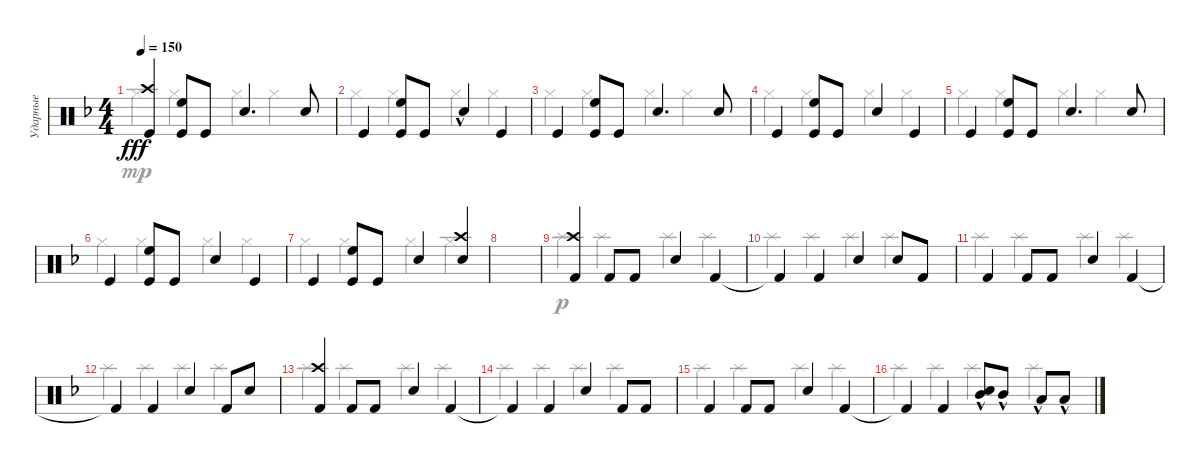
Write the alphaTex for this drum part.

\track ("Ударные" "Ударные") {instrument percussion}
\staff {score}
\articulation defaults
\voice
\ts (4 4)
\tempo 150
\clef neutral
\ks dminor
("Crash high (hit)" "Kick (hit)").4{dy fff} ("Kick (hit)" "High Floor Tom (hit)").8 "Kick (hit)".8 "Electric Snare (hit)".4{d} "Electric Snare (hit)".8 |
"Kick (hit)".4 ("Kick (hit)" "High Floor Tom (hit)").8 "Kick (hit)".8 "Electric Snare (hit)"{hac}.4 "Kick (hit)".4 |
"Kick (hit)".4 ("Kick (hit)" "High Floor Tom (hit)").8 "Kick (hit)".8 "Electric Snare (hit)".4{d} "Electric Snare (hit)".8 |
"Kick (hit)".4 ("Kick (hit)" "High Floor Tom (hit)").8 "Kick (hit)".8 "Electric Snare (hit)".4 "Kick (hit)".4 |
"Kick (hit)".4 ("Kick (hit)" "High Floor Tom (hit)").8 "Kick (hit)".8 "Electric Snare (hit)".4{d} "Electric Snare (hit)".8 |
"Kick (hit)".4 ("Kick (hit)" "High Floor Tom (hit)").8 "Kick (hit)".8 "Electric Snare (hit)".4 "Kick (hit)".4 |
"Kick (hit)".4 ("Kick (hit)" "High Floor Tom (hit)").8 "Kick (hit)".8 "Electric Snare (hit)".4 ("Electric Snare (hit)" "Crash high (hit)").4 |
|
("Crash high (hit)" "Kick (hit) 2").4 "Kick (hit) 2".8 "Kick (hit) 2".8 "Electric Snare (hit)".4 "Kick (hit) 2".4 |
"Kick (hit) 2"{t}.4 "Kick (hit) 2".4 "Electric Snare (hit)".4 "Electric Snare (hit)".8 "Kick (hit) 2".8 |
"Kick (hit) 2".4 "Kick (hit) 2".8 "Kick (hit) 2".8 "Electric Snare (hit)".4 "Kick (hit) 2".4 |
"Kick (hit) 2"{t}.4 "Kick (hit) 2".4 "Electric Snare (hit)".4 "Kick (hit) 2".8 "Electric Snare (hit)".8 |
("Crash high (hit)" "Kick (hit) 2").4 "Kick (hit) 2".8 "Kick (hit) 2".8 "Electric Snare (hit)".4 "Kick (hit) 2".4 |
"Kick (hit) 2"{t}.4 "Kick (hit) 2".4 "Electric Snare (hit)".4 "Kick (hit) 2".8 "Kick (hit) 2".8 |
"Kick (hit) 2".4 "Kick (hit) 2".8 "Kick (hit) 2".8 "Electric Snare (hit)".4 "Kick (hit) 2".4 |
"Kick (hit) 2"{t}.4 "Kick (hit) 2".4 ("Electric Snare (hit)" "Mid Tom (hit)"{hac}).8 "Mid Tom (hit)"{hac}.8 "Low Tom (hit)"{hac}.8 "Low Tom (hit)"{hac}.8
\voice
\clef neutral
\ottava regular
\simile none
\ks dminor "Hi-Hat (closed)".4{dy mp} "Hi-Hat (closed)".4 "Hi-Hat (closed)".4 "Hi-Hat (closed)".4
|
"Hi-Hat (closed)".4 "Hi-Hat (closed)".4 "Hi-Hat (closed)".4 "Hi-Hat (closed)".4 |
"Hi-Hat (closed)".4 "Hi-Hat (closed)".4 "Hi-Hat (closed)".4 "Hi-Hat (closed)".4 |
"Hi-Hat (closed)".4 "Hi-Hat (closed)".4 "Hi-Hat (closed)".4 "Hi-Hat (closed)".4 |
"Hi-Hat (closed)".4 "Hi-Hat (closed)".4 "Hi-Hat (closed)".4 "Hi-Hat (closed)".4 |
"Hi-Hat (closed)".4 "Hi-Hat (closed)".4 "Hi-Hat (closed)".4 "Hi-Hat (closed)".4 |
"Hi-Hat (closed)".4 "Hi-Hat (closed)".4 "Hi-Hat (closed)".4 "Hi-Hat (closed)".4 |
|
"Splash (hit)".4{dy p} "Splash (hit)".4 "Splash (hit)".4 "Splash (hit)".4 |
"Splash (hit)".4 "Splash (hit)".4 "Splash (hit)".4 "Splash (hit)".4 |
"Splash (hit)".4 "Splash (hit)".4 "Splash (hit)".4 "Splash (hit)".4 |
"Splash (hit)".4 "Splash (hit)".4 "Splash (hit)".4 "Splash (hit)".4 |
"Splash (hit)".4 "Splash (hit)".4 "Splash (hit)".4 "Splash (hit)".4 |
"Splash (hit)".4 "Splash (hit)".4 "Splash (hit)".4 "Splash (hit)".4 |
"Splash (hit)".4 "Splash (hit)".4 "Splash (hit)".4 "Splash (hit)".4 |
"Splash (hit)".4 "Splash (hit)".4 "Splash (hit)".4 "Splash (hit)".4
